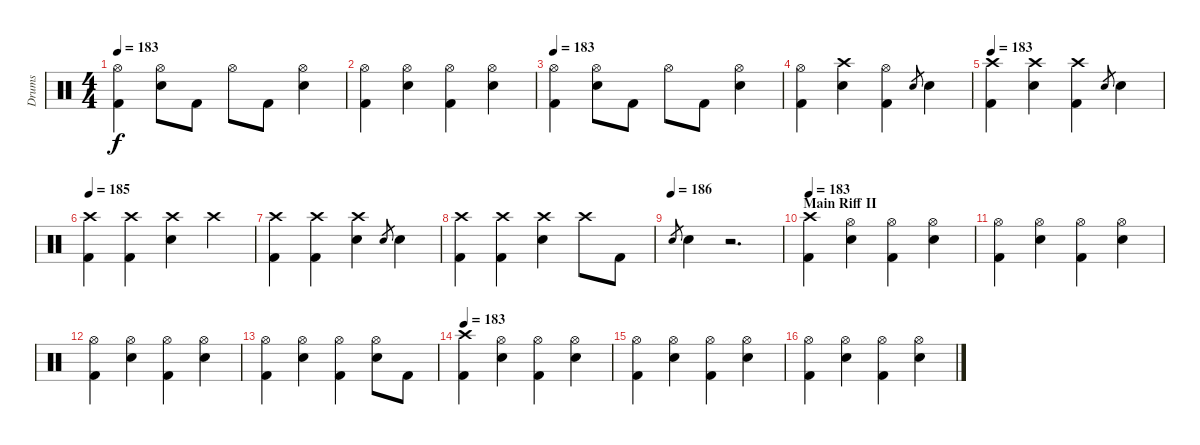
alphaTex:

\track ("Drums" "Drums") {instrument percussion}
\staff {score}
\articulation defaults
\ts (4 4)
\tempo 183
\clef neutral
\ks c
("Hi-Hat (open)" "Kick (hit) 2").4{dy f} ("Hi-Hat (open)" "Snare (hit) 2").8 "Kick (hit) 2".8 "Hi-Hat (open)".8 "Kick (hit) 2".8 ("Snare (hit) 2" "Hi-Hat (open)").4 |
("Kick (hit) 2" "Hi-Hat (open)").4 ("Snare (hit) 2" "Hi-Hat (open)").4 ("Hi-Hat (open)" "Kick (hit) 2").4 ("Hi-Hat (open)" "Snare (hit) 2").4 |
\tempo 183
("Hi-Hat (open)" "Kick (hit) 2").4 ("Hi-Hat (open)" "Snare (hit) 2").8 "Kick (hit) 2".8 "Hi-Hat (open)".8 "Kick (hit) 2".8 ("Snare (hit) 2" "Hi-Hat (open)").4 |
("Kick (hit) 2" "Hi-Hat (open)").4 ("Snare (hit) 2" "Crash high (hit)").4 ("Hi-Hat (open)" "Kick (hit) 2").4 "Snare (hit)".8{gr} "Snare (hit) 2".4 |
\tempo 183
("Kick (hit) 2" "Crash high (hit)").4 ("Snare (hit) 2" "Crash high (hit)").4 ("Kick (hit) 2" "Crash high (hit)").4 "Snare (hit)".8{gr} "Snare (hit) 2".4 |
\tempo 185
("Crash high (hit)" "Kick (hit) 2").4 ("Crash high (hit)" "Kick (hit) 2").4 ("Crash high (hit)" "Snare (hit) 2").4 "Crash high (hit)".4 |
("Crash high (hit)" "Kick (hit) 2").4 ("Crash high (hit)" "Kick (hit) 2").4 ("Crash high (hit)" "Snare (hit) 2").4 "Snare (hit)".8{gr} "Snare (hit) 2".4 |
("Crash high (hit)" "Kick (hit) 2").4 ("Crash high (hit)" "Kick (hit) 2").4 ("Crash high (hit)" "Snare (hit) 2").4 "Crash high (hit)".8 "Kick (hit) 2".8 |
\tempo (186)
"Snare (hit)".8{gr} "Snare (hit) 2".4 r.2{d} |
\section ("" "Main Riff II")
\tempo 183
("Crash high (hit)" "Kick (hit) 2").4 ("Hi-Hat (open)" "Snare (hit) 2").4 ("Hi-Hat (open)" "Kick (hit) 2").4 ("Hi-Hat (open)" "Snare (hit) 2").4 |
("Hi-Hat (open)" "Kick (hit) 2").4 ("Hi-Hat (open)" "Snare (hit) 2").4 ("Hi-Hat (open)" "Kick (hit) 2").4 ("Hi-Hat (open)" "Snare (hit) 2").4 |
("Hi-Hat (open)" "Kick (hit) 2").4 ("Hi-Hat (open)" "Snare (hit) 2").4 ("Hi-Hat (open)" "Kick (hit) 2").4 ("Hi-Hat (open)" "Snare (hit) 2").4 |
("Hi-Hat (open)" "Kick (hit) 2").4 ("Hi-Hat (open)" "Snare (hit) 2").4 ("Hi-Hat (open)" "Kick (hit) 2").4 ("Hi-Hat (open)" "Snare (hit) 2").8 "Kick (hit) 2".8 |
\tempo 183
("Crash high (hit)" "Kick (hit) 2").4 ("Hi-Hat (open)" "Snare (hit) 2").4 ("Hi-Hat (open)" "Kick (hit) 2").4 ("Hi-Hat (open)" "Snare (hit) 2").4 |
("Hi-Hat (open)" "Kick (hit) 2").4 ("Hi-Hat (open)" "Snare (hit) 2").4 ("Hi-Hat (open)" "Kick (hit) 2").4 ("Hi-Hat (open)" "Snare (hit) 2").4 |
("Hi-Hat (open)" "Kick (hit) 2").4 ("Hi-Hat (open)" "Snare (hit) 2").4 ("Hi-Hat (open)" "Kick (hit) 2").4 ("Hi-Hat (open)" "Snare (hit) 2").4
